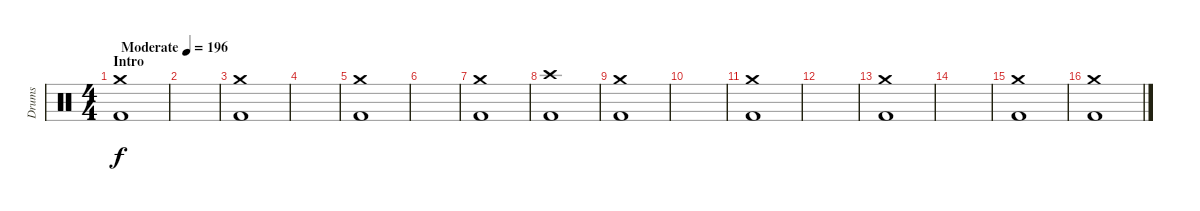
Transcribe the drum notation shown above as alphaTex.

\track ("Drums" "Drums") {instrument percussion}
\staff {score}
\articulation defaults
\ts (4 4)
\section ("" "Intro")
\tempo (196 "Moderate")
\clef neutral
\ks c
("Crash medium (hit)" "Kick (hit) 2").1{dy f} |
|
("Crash medium (hit)" "Kick (hit) 2").1 |
|
("Crash medium (hit)" "Kick (hit) 2").1 |
|
("Crash medium (hit)" "Kick (hit) 2").1 |
("Crash high (hit)" "Kick (hit) 2").1 |
("Crash medium (hit)" "Kick (hit) 2").1 |
|
("Crash medium (hit)" "Kick (hit) 2").1 |
|
("Crash medium (hit)" "Kick (hit) 2").1 |
|
("Crash medium (hit)" "Kick (hit) 2").1 |
("Crash medium (hit)" "Kick (hit) 2").1
